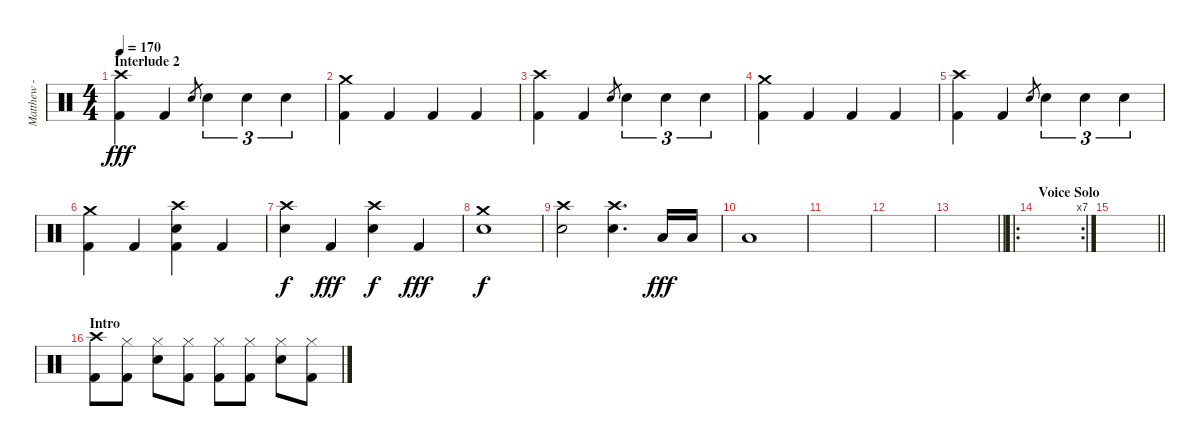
\track ("Matthew - Drums" "Matthew - ") {instrument percussion}
\staff {score}
\articulation defaults
\ts (4 4)
\section ("" "Interlude 2")
\tempo 170
\clef neutral
\ks c
("Crash high (hit)" "Kick (hit) 2").4{dy fff} "Kick (hit) 2".4 "Electric Snare (hit)".8{gr} "Electric Snare (hit)".4{tu (3 2)} "Electric Snare (hit)".4{tu (3 2)} "Electric Snare (hit)".4{tu (3 2)} |
("Crash medium (hit)" "Kick (hit) 2").4 "Kick (hit) 2".4 "Kick (hit) 2".4 "Kick (hit) 2".4 |
("Crash high (hit)" "Kick (hit) 2").4 "Kick (hit) 2".4 "Electric Snare (hit)".8{gr} "Electric Snare (hit)".4{tu (3 2)} "Electric Snare (hit)".4{tu (3 2)} "Electric Snare (hit)".4{tu (3 2)} |
("Crash medium (hit)" "Kick (hit) 2").4 "Kick (hit) 2".4 "Kick (hit) 2".4 "Kick (hit) 2".4 |
("Crash high (hit)" "Kick (hit) 2").4 "Kick (hit) 2".4 "Electric Snare (hit)".8{gr} "Electric Snare (hit)".4{tu (3 2)} "Electric Snare (hit)".4{tu (3 2)} "Electric Snare (hit)".4{tu (3 2)} |
("Crash medium (hit)" "Kick (hit) 2").4 "Kick (hit) 2".4 ("Crash high (hit)" "Electric Snare (hit)" "Kick (hit) 2").4 "Kick (hit) 2".4 |
("Crash high (hit)" "Electric Snare (hit)").4{dy f} "Kick (hit) 2".4{dy fff} ("Crash high (hit)" "Electric Snare (hit)").4{dy f} "Kick (hit) 2".4{dy fff} |
("Crash medium (hit)" "Electric Snare (hit)").1{dy f} |
("Crash high (hit)" "Electric Snare (hit)").2 ("Crash high (hit)" "Electric Snare (hit)").4{d} "Low Floor Tom (hit)".16{dy fff} "Low Floor Tom (hit)".16 |
"Low Tom (hit)".1 |
|
|
\barLineRight lightlight
|
\ro
\rc 7
\section ("" "Voice Solo")
|
\barLineRight lightlight
|
\section ("" "Intro")
("Crash high (hit)" "Kick (hit) 2").8 ("Hi-Hat (closed)" "Kick (hit) 2").8 ("Hi-Hat (closed)" "Electric Snare (hit)").8 ("Hi-Hat (closed)" "Kick (hit) 2").8 ("Hi-Hat (closed)" "Kick (hit) 2").8 ("Hi-Hat (closed)" "Kick (hit) 2").8 ("Hi-Hat (closed)" "Electric Snare (hit)").8 ("Hi-Hat (closed)" "Kick (hit) 2").8
